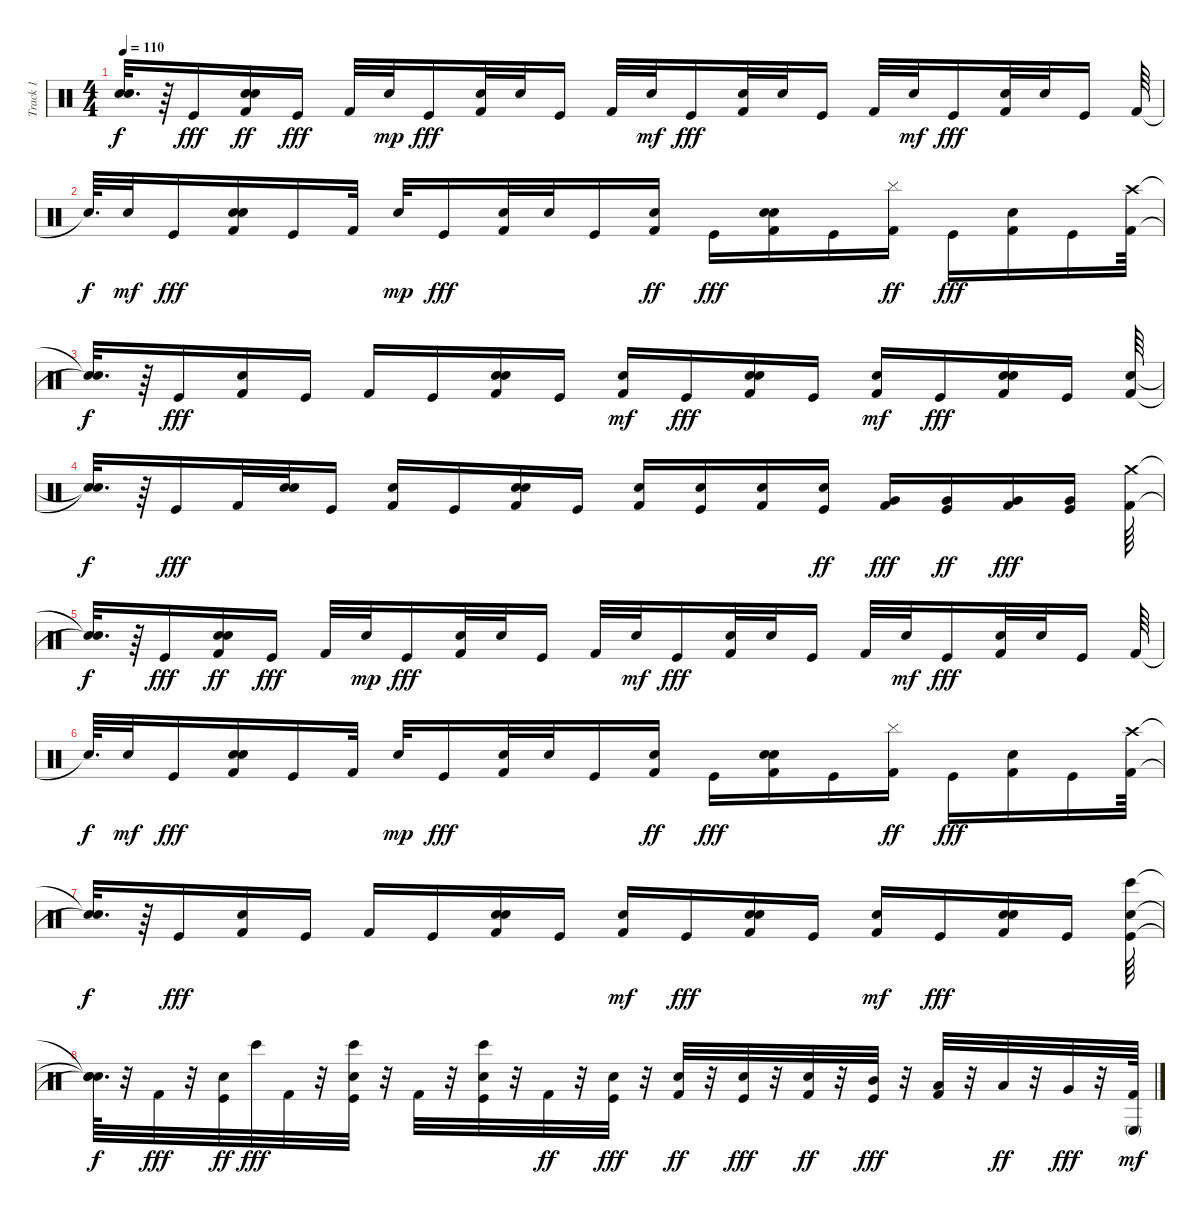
\track ("Track 1" "Track 1") {mute instrument percussion}
\staff {score}
\articulation defaults
\ts (4 4)
\tempo 110
\clef neutral
\ks c
("Snare (hit)"{t} "Snare (hit)"{t}).32{d dy f} r.64 "Kick (hit)".16{dy fff} ("Kick (hit) 2" "Snare (hit) 2" "Snare (hit)").16{dy ff} "Kick (hit)".16{dy fff} "Kick (hit) 2".32 "Snare (hit)".32{dy mp} "Kick (hit)".16{dy fff} ("Kick (hit) 2" "Snare (hit) 2").32 "Snare (hit)".32 "Kick (hit)".16 "Kick (hit) 2".32 "Snare (hit)".32{dy mf} "Kick (hit)".16{dy fff} ("Kick (hit) 2" "Snare (hit) 2").32 "Snare (hit)".32 "Kick (hit)".16 "Kick (hit) 2".32 "Snare (hit)".32{dy mf} "Kick (hit)".16{dy fff} ("Kick (hit) 2" "Snare (hit) 2").32 "Snare (hit)".32 "Kick (hit)".16 "Kick (hit) 2".64 |
"Snare (hit)"{t}.64{d dy f} "Snare (hit)".32{dy mf} "Kick (hit)".16{dy fff} ("Kick (hit) 2" "Snare (hit) 2" "Snare (hit)").16 "Kick (hit)".16 "Kick (hit) 2".32 "Snare (hit)".32{dy mp} "Kick (hit)".16{dy fff} ("Kick (hit) 2" "Snare (hit)").32 "Snare (hit) 2".32 "Kick (hit)".16 ("Kick (hit) 2" "Snare (hit)").16{dy ff} "Kick (hit)".16{dy fff} ("Kick (hit) 2" "Snare (hit)" "Snare (hit) 2").16 "Kick (hit)".16 ("Kick (hit) 2" "Cymbal (hit)").16{dy ff} "Kick (hit)".16{dy fff} ("Kick (hit) 2" "Snare (hit) 2").16 "Kick (hit)".16 ("Kick (hit) 2" "Crash high (hit)").64 |
("Snare (hit)"{t} "Snare (hit)"{t}).32{d dy f} r.64 "Kick (hit)".16{dy fff} ("Kick (hit) 2" "Snare (hit) 2").16 "Kick (hit)".16 "Kick (hit) 2".16 "Kick (hit)".16 ("Kick (hit) 2" "Snare (hit)" "Snare (hit) 2").16 "Kick (hit)".16 ("Kick (hit) 2" "Snare (hit)").16{dy mf} "Kick (hit)".16{dy fff} ("Kick (hit) 2" "Snare (hit) 2" "Snare (hit)").16 "Kick (hit)".16 ("Kick (hit) 2" "Snare (hit)").16{dy mf} "Kick (hit)".16{dy fff} ("Kick (hit) 2" "Snare (hit) 2" "Snare (hit)").16 "Kick (hit)".16 ("Kick (hit) 2" "Snare (hit)").64 |
("Snare (hit)"{t} "Snare (hit)"{t}).32{d dy f} r.64 "Kick (hit)".16{dy fff} "Kick (hit) 2".32 ("Snare (hit) 2" "Snare (hit)").32 "Kick (hit)".16 ("Kick (hit) 2" "Snare (hit)").16 "Kick (hit)".16 ("Snare (hit)" "Kick (hit) 2" "Snare (hit) 2").16 "Kick (hit)".16 ("Kick (hit) 2" "Snare (hit) 2").16 ("Kick (hit)" "Snare (hit) 2").16 ("Kick (hit) 2" "Snare (hit) 2").16 ("Kick (hit)" "Snare (hit) 2").16{dy ff} ("Kick (hit) 2" "Very Low Tom (hit)").16{dy fff} ("Kick (hit)" "Very Low Tom (hit)").16{dy ff} ("Kick (hit) 2" "Very Low Tom (hit)").16{dy fff} ("Kick (hit)" "Very Low Tom (hit)").16 ("Kick (hit) 2" "Crash medium (hit)").64 |
("Snare (hit)"{t} "Snare (hit)"{t}).32{d dy f} r.64 "Kick (hit)".16{dy fff} ("Kick (hit) 2" "Snare (hit) 2" "Snare (hit)").16{dy ff} "Kick (hit)".16{dy fff} "Kick (hit) 2".32 "Snare (hit)".32{dy mp} "Kick (hit)".16{dy fff} ("Kick (hit) 2" "Snare (hit) 2").32 "Snare (hit)".32 "Kick (hit)".16 "Kick (hit) 2".32 "Snare (hit)".32{dy mf} "Kick (hit)".16{dy fff} ("Kick (hit) 2" "Snare (hit) 2").32 "Snare (hit)".32 "Kick (hit)".16 "Kick (hit) 2".32 "Snare (hit)".32{dy mf} "Kick (hit)".16{dy fff} ("Kick (hit) 2" "Snare (hit) 2").32 "Snare (hit)".32 "Kick (hit)".16 "Kick (hit) 2".64 |
"Snare (hit)"{t}.64{d dy f} "Snare (hit)".32{dy mf} "Kick (hit)".16{dy fff} ("Kick (hit) 2" "Snare (hit) 2" "Snare (hit)").16 "Kick (hit)".16 "Kick (hit) 2".32 "Snare (hit)".32{dy mp} "Kick (hit)".16{dy fff} ("Kick (hit) 2" "Snare (hit)").32 "Snare (hit) 2".32 "Kick (hit)".16 ("Kick (hit) 2" "Snare (hit)").16{dy ff} "Kick (hit)".16{dy fff} ("Kick (hit) 2" "Snare (hit)" "Snare (hit) 2").16 "Kick (hit)".16 ("Kick (hit) 2" "Cymbal (hit)").16{dy ff} "Kick (hit)".16{dy fff} ("Kick (hit) 2" "Snare (hit) 2").16 "Kick (hit)".16 ("Kick (hit) 2" "Crash high (hit)").64 |
("Snare (hit)"{t} "Snare (hit)"{t}).32{d dy f} r.64 "Kick (hit)".16{dy fff} ("Kick (hit) 2" "Snare (hit) 2").16 "Kick (hit)".16 "Kick (hit) 2".16 "Kick (hit)".16 ("Kick (hit) 2" "Snare (hit)" "Snare (hit) 2").16 "Kick (hit)".16 ("Kick (hit) 2" "Snare (hit)").16{dy mf} "Kick (hit)".16{dy fff} ("Kick (hit) 2" "Snare (hit) 2" "Snare (hit)").16 "Kick (hit)".16 ("Kick (hit) 2" "Snare (hit)").16{dy mf} "Kick (hit)".16{dy fff} ("Kick (hit) 2" "Snare (hit) 2" "Snare (hit)").16 "Kick (hit)".16 ("Kick (hit)" "Snare (hit) 2" "Bongo High (hit)").64 |
("Snare (hit)"{t} "Snare (hit)"{t} "Snare (hit)"{t}).64{d dy f} r.32 "Kick (hit) 2".32{dy fff} r.32 ("Kick (hit)" "Snare (hit) 2").32{dy ff} "Bongo High (hit)".32{dy fff} "Kick (hit) 2".32 r.32 ("Kick (hit)" "Snare (hit) 2" "Bongo High (hit)").32 r.32 "Kick (hit) 2".32 r.32 ("Snare (hit) 2" "Kick (hit)" "Bongo High (hit)").32 r.32 "Kick (hit) 2".32{dy ff} r.32 ("Kick (hit)" "Snare (hit) 2").32{dy fff} r.32 ("Snare (hit) 2" "Kick (hit) 2").32{dy ff} r.32 ("Kick (hit)" "Snare (hit) 2").32{dy fff} r.32 ("Kick (hit) 2" "Snare (hit) 2").32{dy ff} r.32 ("Kick (hit)" "Mid Tom (hit)").32{dy fff} r.32 ("Kick (hit) 2" "Low Tom (hit)").32 r.32 "Low Tom (hit)".32{dy ff} r.32 "Very Low Tom (hit)".32{dy fff} r.32 ("Kick (hit) 2" "Conga low (mute)").64{dy mf}
